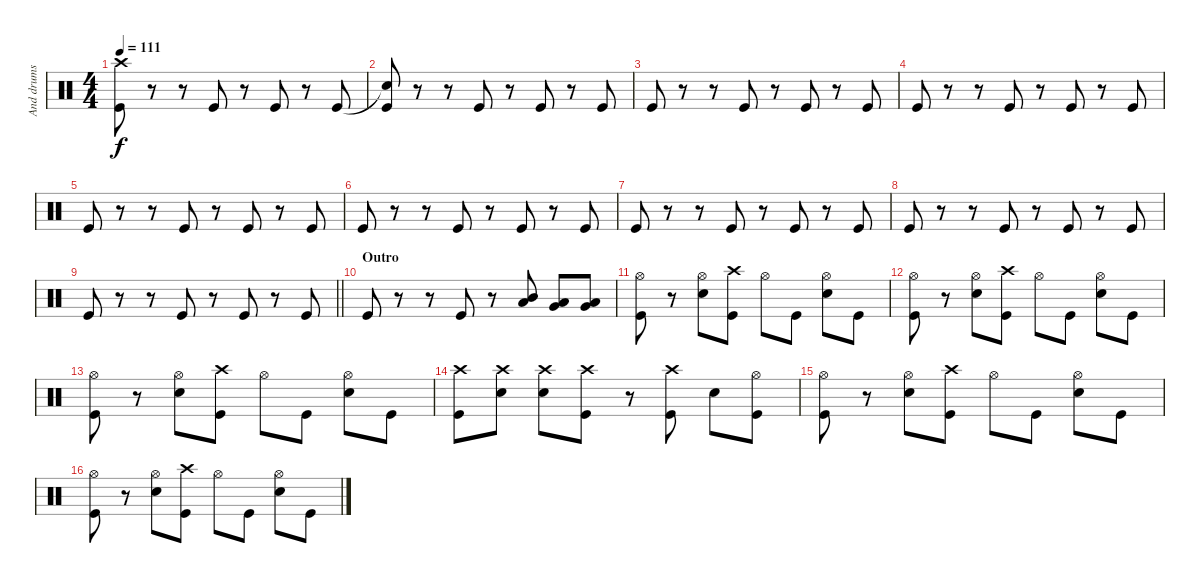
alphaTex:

\track ("And drums" "And drums") {instrument percussion}
\staff {score}
\articulation defaults
\ts (4 4)
\tempo 111
\clef neutral
\ks c
("Crash high (hit)" "Kick (hit)").8{dy f} r.8 r.8 "Kick (hit)".8 r.8 "Kick (hit)".8 r.8 "Kick (hit)".8 |
("Snare (hit)"{t} "Kick (hit)").8 r.8 r.8 "Kick (hit)".8 r.8 "Kick (hit)".8 r.8 "Kick (hit)".8 |
"Kick (hit)".8 r.8 r.8 "Kick (hit)".8 r.8 "Kick (hit)".8 r.8 "Kick (hit)".8 |
"Kick (hit)".8 r.8 r.8 "Kick (hit)".8 r.8 "Kick (hit)".8 r.8 "Kick (hit)".8 |
"Kick (hit)".8 r.8 r.8 "Kick (hit)".8 r.8 "Kick (hit)".8 r.8 "Kick (hit)".8 |
"Kick (hit)".8 r.8 r.8 "Kick (hit)".8 r.8 "Kick (hit)".8 r.8 "Kick (hit)".8 |
"Kick (hit)".8 r.8 r.8 "Kick (hit)".8 r.8 "Kick (hit)".8 r.8 "Kick (hit)".8 |
"Kick (hit)".8 r.8 r.8 "Kick (hit)".8 r.8 "Kick (hit)".8 r.8 "Kick (hit)".8 |
\barLineRight lightlight "Kick (hit)".8
r.8 r.8 "Kick (hit)".8 r.8 "Kick (hit)".8 r.8 "Kick (hit)".8 |
\section ("" "Outro")
"Kick (hit)".8 r.8 r.8 "Kick (hit)".8 r.8 ("Mid Tom (hit)" "Low Tom (hit)").8 ("Low Tom (hit)" "Very Low Tom (hit)").8 ("Very Low Tom (hit)" "Low Floor Tom (hit)").8 |
("Hi-Hat (open)" "Kick (hit)").8 r.8 ("Hi-Hat (open)" "Snare (hit) 2").8 ("Crash high (hit)" "Kick (hit)").8 "Hi-Hat (open)".8 "Kick (hit)".8 ("Hi-Hat (open)" "Snare (hit) 2").8 "Kick (hit)".8 |
("Hi-Hat (open)" "Kick (hit)").8 r.8 ("Hi-Hat (open)" "Snare (hit) 2").8 ("Crash high (hit)" "Kick (hit)").8 "Hi-Hat (open)".8 "Kick (hit)".8 ("Hi-Hat (open)" "Snare (hit) 2").8 "Kick (hit)".8 |
("Hi-Hat (open)" "Kick (hit)").8 r.8 ("Hi-Hat (open)" "Snare (hit) 2").8 ("Crash high (hit)" "Kick (hit)").8 "Hi-Hat (open)".8 "Kick (hit)".8 ("Hi-Hat (open)" "Snare (hit) 2").8 "Kick (hit)".8 |
("Crash high (hit)" "Kick (hit)").8 ("Crash high (hit)" "Snare (hit) 2").8 ("Crash high (hit)" "Snare (hit) 2").8 ("Crash high (hit)" "Kick (hit)").8 r.8 ("Crash high (hit)" "Kick (hit)").8 "Snare (hit) 2".8 ("Hi-Hat (open)" "Kick (hit)").8 |
("Hi-Hat (open)" "Kick (hit)").8 r.8 ("Hi-Hat (open)" "Snare (hit) 2").8 ("Crash high (hit)" "Kick (hit)").8 "Hi-Hat (open)".8 "Kick (hit)".8 ("Hi-Hat (open)" "Snare (hit) 2").8 "Kick (hit)".8 |
("Hi-Hat (open)" "Kick (hit)").8 r.8 ("Hi-Hat (open)" "Snare (hit) 2").8 ("Crash high (hit)" "Kick (hit)").8 "Hi-Hat (open)".8 "Kick (hit)".8 ("Hi-Hat (open)" "Snare (hit) 2").8 "Kick (hit)".8
